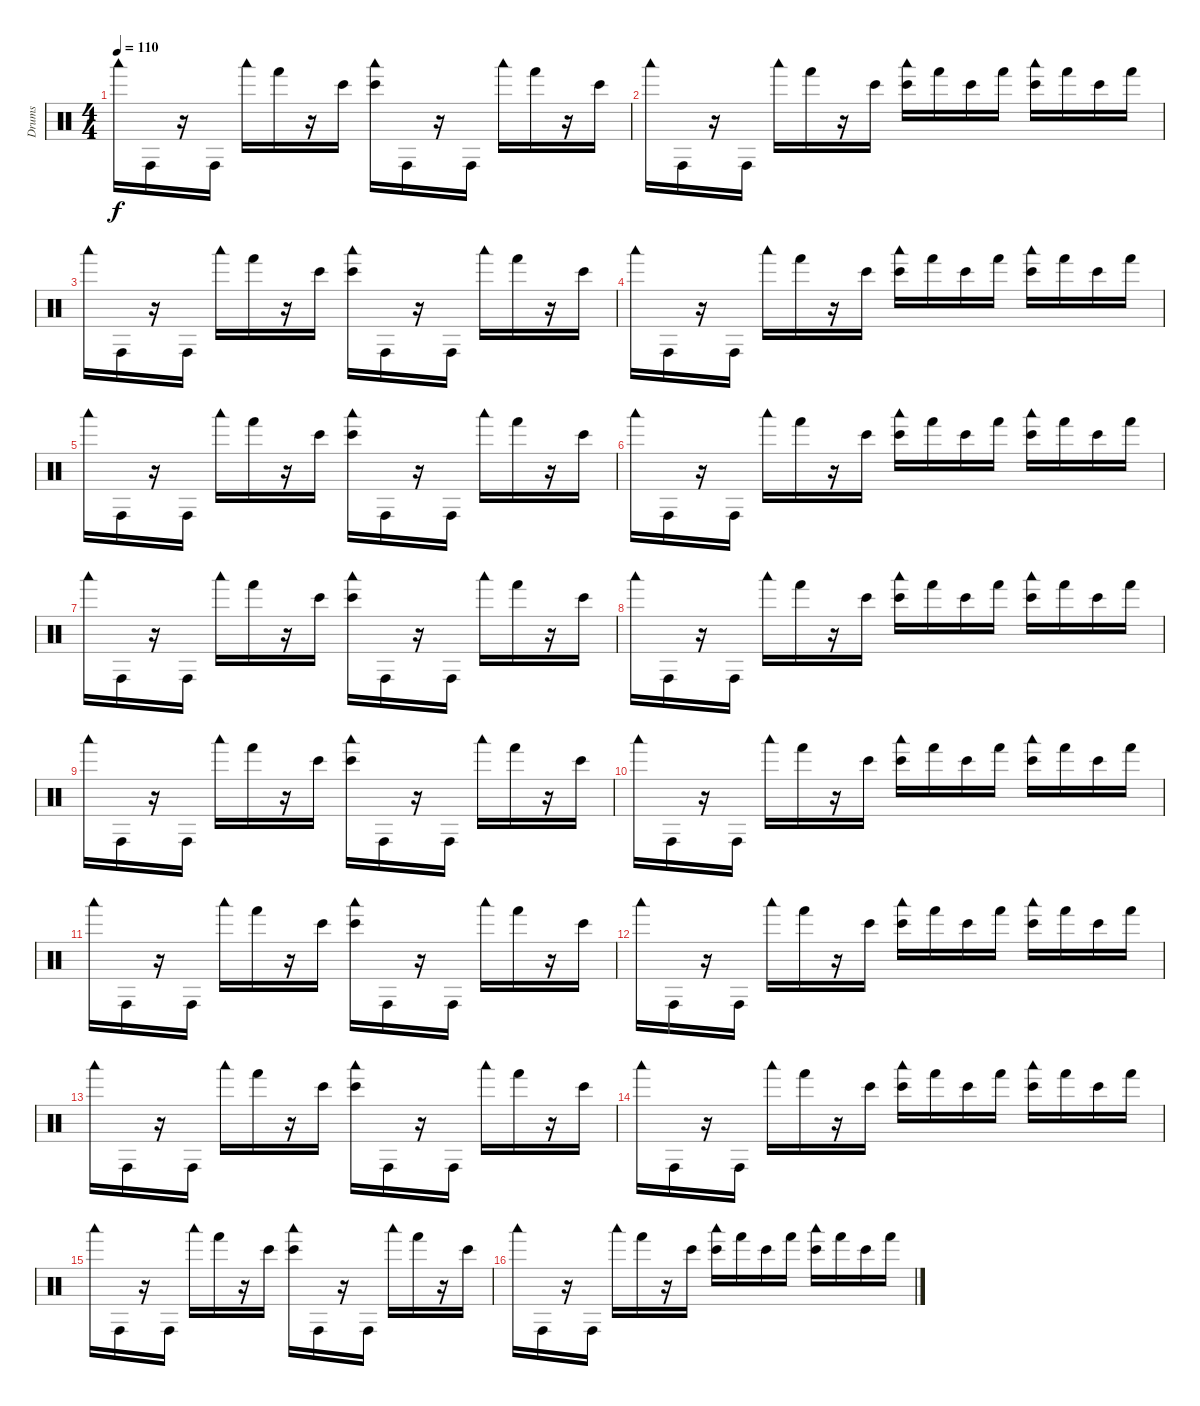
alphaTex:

\track ("Drums" "Drums") {instrument percussion}
\staff {score}
\articulation defaults
\ts (4 4)
\tempo 110
\clef neutral
\ks c "Woodblock low (hit)".16{dy f} "Conga high (hit)".16
r.16 "Conga high (hit)".16 "Woodblock low (hit)".16 "Hand (hit)".16 r.16 "Bongo High (hit)".16 ("Woodblock low (hit)" "Bongo High (hit)").16 "Conga high (hit)".16 r.16 "Conga high (hit)".16 "Woodblock low (hit)".16 "Hand (hit)".16 r.16 "Bongo High (hit)".16 |
"Woodblock low (hit)".16 "Conga high (hit)".16 r.16 "Conga high (hit)".16 "Woodblock low (hit)".16 "Hand (hit)".16 r.16 "Bongo High (hit)".16 ("Woodblock low (hit)" "Bongo High (hit)").16 "Hand (hit)".16 "Bongo High (hit)".16 "Hand (hit)".16 ("Woodblock low (hit)" "Bongo High (hit)").16 "Hand (hit)".16 "Bongo High (hit)".16 "Hand (hit)".16 |
"Woodblock low (hit)".16 "Conga high (hit)".16 r.16 "Conga high (hit)".16 "Woodblock low (hit)".16 "Hand (hit)".16 r.16 "Bongo High (hit)".16 ("Woodblock low (hit)" "Bongo High (hit)").16 "Conga high (hit)".16 r.16 "Conga high (hit)".16 "Woodblock low (hit)".16 "Hand (hit)".16 r.16 "Bongo High (hit)".16 |
"Woodblock low (hit)".16 "Conga high (hit)".16 r.16 "Conga high (hit)".16 "Woodblock low (hit)".16 "Hand (hit)".16 r.16 "Bongo High (hit)".16 ("Woodblock low (hit)" "Bongo High (hit)").16 "Hand (hit)".16 "Bongo High (hit)".16 "Hand (hit)".16 ("Woodblock low (hit)" "Bongo High (hit)").16 "Hand (hit)".16 "Bongo High (hit)".16 "Hand (hit)".16 |
"Woodblock low (hit)".16 "Conga high (hit)".16 r.16 "Conga high (hit)".16 "Woodblock low (hit)".16 "Hand (hit)".16 r.16 "Bongo High (hit)".16 ("Woodblock low (hit)" "Bongo High (hit)").16 "Conga high (hit)".16 r.16 "Conga high (hit)".16 "Woodblock low (hit)".16 "Hand (hit)".16 r.16 "Bongo High (hit)".16 |
"Woodblock low (hit)".16 "Conga high (hit)".16 r.16 "Conga high (hit)".16 "Woodblock low (hit)".16 "Hand (hit)".16 r.16 "Bongo High (hit)".16 ("Woodblock low (hit)" "Bongo High (hit)").16 "Hand (hit)".16 "Bongo High (hit)".16 "Hand (hit)".16 ("Woodblock low (hit)" "Bongo High (hit)").16 "Hand (hit)".16 "Bongo High (hit)".16 "Hand (hit)".16 |
"Woodblock low (hit)".16 "Conga high (hit)".16 r.16 "Conga high (hit)".16 "Woodblock low (hit)".16 "Hand (hit)".16 r.16 "Bongo High (hit)".16 ("Woodblock low (hit)" "Bongo High (hit)").16 "Conga high (hit)".16 r.16 "Conga high (hit)".16 "Woodblock low (hit)".16 "Hand (hit)".16 r.16 "Bongo High (hit)".16 |
"Woodblock low (hit)".16 "Conga high (hit)".16 r.16 "Conga high (hit)".16 "Woodblock low (hit)".16 "Hand (hit)".16 r.16 "Bongo High (hit)".16 ("Woodblock low (hit)" "Bongo High (hit)").16 "Hand (hit)".16 "Bongo High (hit)".16 "Hand (hit)".16 ("Woodblock low (hit)" "Bongo High (hit)").16 "Hand (hit)".16 "Bongo High (hit)".16 "Hand (hit)".16 |
"Woodblock low (hit)".16{volume 7} "Conga high (hit)".16 r.16 "Conga high (hit)".16 "Woodblock low (hit)".16 "Hand (hit)".16 r.16 "Bongo High (hit)".16 ("Woodblock low (hit)" "Bongo High (hit)").16 "Conga high (hit)".16 r.16 "Conga high (hit)".16 "Woodblock low (hit)".16 "Hand (hit)".16 r.16 "Bongo High (hit)".16 |
"Woodblock low (hit)".16 "Conga high (hit)".16 r.16 "Conga high (hit)".16 "Woodblock low (hit)".16 "Hand (hit)".16 r.16 "Bongo High (hit)".16 ("Woodblock low (hit)" "Bongo High (hit)").16 "Hand (hit)".16 "Bongo High (hit)".16 "Hand (hit)".16 ("Woodblock low (hit)" "Bongo High (hit)").16 "Hand (hit)".16 "Bongo High (hit)".16 "Hand (hit)".16 |
"Woodblock low (hit)".16 "Conga high (hit)".16 r.16 "Conga high (hit)".16 "Woodblock low (hit)".16 "Hand (hit)".16 r.16 "Bongo High (hit)".16 ("Woodblock low (hit)" "Bongo High (hit)").16 "Conga high (hit)".16 r.16 "Conga high (hit)".16 "Woodblock low (hit)".16 "Hand (hit)".16 r.16 "Bongo High (hit)".16 |
"Woodblock low (hit)".16 "Conga high (hit)".16 r.16 "Conga high (hit)".16 "Woodblock low (hit)".16 "Hand (hit)".16 r.16 "Bongo High (hit)".16 ("Woodblock low (hit)" "Bongo High (hit)").16 "Hand (hit)".16 "Bongo High (hit)".16 "Hand (hit)".16 ("Woodblock low (hit)" "Bongo High (hit)").16 "Hand (hit)".16 "Bongo High (hit)".16 "Hand (hit)".16 |
"Woodblock low (hit)".16{volume 0} "Conga high (hit)".16 r.16 "Conga high (hit)".16 "Woodblock low (hit)".16 "Hand (hit)".16 r.16 "Bongo High (hit)".16 ("Woodblock low (hit)" "Bongo High (hit)").16 "Conga high (hit)".16 r.16 "Conga high (hit)".16 "Woodblock low (hit)".16 "Hand (hit)".16 r.16 "Bongo High (hit)".16 |
"Woodblock low (hit)".16 "Conga high (hit)".16 r.16 "Conga high (hit)".16 "Woodblock low (hit)".16 "Hand (hit)".16 r.16 "Bongo High (hit)".16 ("Woodblock low (hit)" "Bongo High (hit)").16 "Hand (hit)".16 "Bongo High (hit)".16 "Hand (hit)".16 ("Woodblock low (hit)" "Bongo High (hit)").16 "Hand (hit)".16 "Bongo High (hit)".16 "Hand (hit)".16 |
"Woodblock low (hit)".16 "Conga high (hit)".16 r.16 "Conga high (hit)".16 "Woodblock low (hit)".16 "Hand (hit)".16 r.16 "Bongo High (hit)".16 ("Woodblock low (hit)" "Bongo High (hit)").16 "Conga high (hit)".16 r.16 "Conga high (hit)".16 "Woodblock low (hit)".16 "Hand (hit)".16 r.16 "Bongo High (hit)".16 |
"Woodblock low (hit)".16 "Conga high (hit)".16 r.16 "Conga high (hit)".16 "Woodblock low (hit)".16 "Hand (hit)".16 r.16 "Bongo High (hit)".16 ("Woodblock low (hit)" "Bongo High (hit)").16 "Hand (hit)".16 "Bongo High (hit)".16 "Hand (hit)".16 ("Woodblock low (hit)" "Bongo High (hit)").16 "Hand (hit)".16 "Bongo High (hit)".16 "Hand (hit)".16
